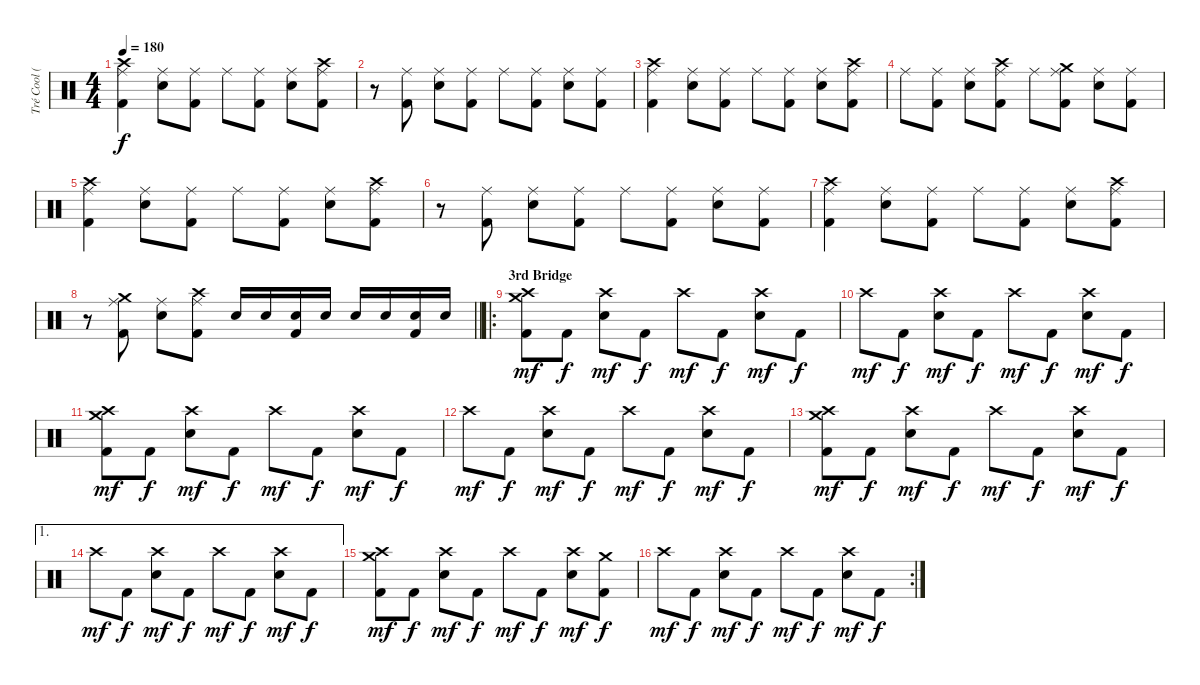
\track ("Tré Cool (Drums)" "Tré Cool (") {instrument percussion}
\staff {score}
\articulation defaults
\ts (4 4)
\tempo 180
\clef neutral
\ks c
("Crash high (hit)" "Ride (middle)" "Kick (hit) 2").4{dy f} ("Ride (middle)" "Electric Snare (hit)").8 ("Ride (middle)" "Kick (hit) 2").8 "Ride (middle)".8 ("Ride (middle)" "Kick (hit) 2").8 ("Ride (middle)" "Electric Snare (hit)").8 ("Crash high (hit)" "Ride (middle)" "Kick (hit) 2").8 |
r.8 ("Ride (middle)" "Kick (hit) 2").8 ("Ride (middle)" "Electric Snare (hit)").8 ("Ride (middle)" "Kick (hit) 2").8 "Ride (middle)".8 ("Ride (middle)" "Kick (hit) 2").8 ("Ride (middle)" "Electric Snare (hit)").8 ("Ride (middle)" "Kick (hit) 2").8 |
("Crash high (hit)" "Ride (middle)" "Kick (hit) 2").4 ("Ride (middle)" "Electric Snare (hit)").8 ("Ride (middle)" "Kick (hit) 2").8 "Ride (middle)".8 ("Ride (middle)" "Kick (hit) 2").8 ("Ride (middle)" "Electric Snare (hit)").8 ("Crash high (hit)" "Ride (middle)" "Kick (hit) 2").8 |
"Ride (middle)".8 ("Ride (middle)" "Kick (hit) 2").8 ("Ride (middle)" "Electric Snare (hit)").8 ("Crash high (hit)" "Ride (middle)" "Kick (hit) 2").8 "Ride (middle)".8 ("Crash medium (hit)" "Ride (middle)" "Kick (hit) 2").8 ("Ride (middle)" "Electric Snare (hit)").8 ("Ride (middle)" "Kick (hit) 2").8 |
("Crash high (hit)" "Ride (middle)" "Kick (hit) 2").4 ("Ride (middle)" "Electric Snare (hit)").8 ("Ride (middle)" "Kick (hit) 2").8 "Ride (middle)".8 ("Ride (middle)" "Kick (hit) 2").8 ("Ride (middle)" "Electric Snare (hit)").8 ("Crash high (hit)" "Ride (middle)" "Kick (hit) 2").8 |
r.8 ("Ride (middle)" "Kick (hit) 2").8 ("Ride (middle)" "Electric Snare (hit)").8 ("Ride (middle)" "Kick (hit) 2").8 "Ride (middle)".8 ("Ride (middle)" "Kick (hit) 2").8 ("Ride (middle)" "Electric Snare (hit)").8 ("Ride (middle)" "Kick (hit) 2").8 |
("Crash high (hit)" "Ride (middle)" "Kick (hit) 2").4 ("Ride (middle)" "Electric Snare (hit)").8 ("Ride (middle)" "Kick (hit) 2").8 "Ride (middle)".8 ("Ride (middle)" "Kick (hit) 2").8 ("Ride (middle)" "Electric Snare (hit)").8 ("Crash high (hit)" "Ride (middle)" "Kick (hit) 2").8 |
\barLineRight lightlight
r.8 ("Crash medium (hit)" "Ride (middle)" "Kick (hit) 2").8 ("Ride (middle)" "Electric Snare (hit)").8 ("Crash high (hit)" "Ride (middle)" "Kick (hit) 2").8 "Electric Snare (hit)".16 "Electric Snare (hit)".16 ("Electric Snare (hit)" "Kick (hit) 2").16 "Electric Snare (hit)".16 "Electric Snare (hit)".16 "Electric Snare (hit)".16 ("Electric Snare (hit)" "Kick (hit) 2").16 "Electric Snare (hit)".16 |
\ro
\section ("" "3rd Bridge")
("Crash medium (hit)" "Crash high (hit)" "Kick (hit) 2").8{dy mf} "Kick (hit) 2".8{dy f} ("Crash high (hit)" "Electric Snare (hit)").8{dy mf} "Kick (hit) 2".8{dy f} "Crash high (hit)".8{dy mf} "Kick (hit) 2".8{dy f} ("Crash high (hit)" "Electric Snare (hit)").8{dy mf} "Kick (hit) 2".8{dy f} |
"Crash high (hit)".8{dy mf} "Kick (hit) 2".8{dy f} ("Crash high (hit)" "Electric Snare (hit)").8{dy mf} "Kick (hit) 2".8{dy f} "Crash high (hit)".8{dy mf} "Kick (hit) 2".8{dy f} ("Crash high (hit)" "Electric Snare (hit)").8{dy mf} "Kick (hit) 2".8{dy f} |
("Crash medium (hit)" "Crash high (hit)" "Kick (hit) 2").8{dy mf} "Kick (hit) 2".8{dy f} ("Crash high (hit)" "Electric Snare (hit)").8{dy mf} "Kick (hit) 2".8{dy f} "Crash high (hit)".8{dy mf} "Kick (hit) 2".8{dy f} ("Crash high (hit)" "Electric Snare (hit)").8{dy mf} "Kick (hit) 2".8{dy f} |
"Crash high (hit)".8{dy mf} "Kick (hit) 2".8{dy f} ("Crash high (hit)" "Electric Snare (hit)").8{dy mf} "Kick (hit) 2".8{dy f} "Crash high (hit)".8{dy mf} "Kick (hit) 2".8{dy f} ("Crash high (hit)" "Electric Snare (hit)").8{dy mf} "Kick (hit) 2".8{dy f} |
("Crash medium (hit)" "Crash high (hit)" "Kick (hit) 2").8{dy mf} "Kick (hit) 2".8{dy f} ("Crash high (hit)" "Electric Snare (hit)").8{dy mf} "Kick (hit) 2".8{dy f} "Crash high (hit)".8{dy mf} "Kick (hit) 2".8{dy f} ("Crash high (hit)" "Electric Snare (hit)").8{dy mf} "Kick (hit) 2".8{dy f} |
\ae 1 "Crash high (hit)".8{dy mf} "Kick (hit) 2".8{dy f}
("Crash high (hit)" "Electric Snare (hit)").8{dy mf} "Kick (hit) 2".8{dy f} "Crash high (hit)".8{dy mf} "Kick (hit) 2".8{dy f} ("Crash high (hit)" "Electric Snare (hit)").8{dy mf} "Kick (hit) 2".8{dy f} |
("Crash medium (hit)" "Crash high (hit)" "Kick (hit) 2").8{dy mf} "Kick (hit) 2".8{dy f} ("Crash high (hit)" "Electric Snare (hit)").8{dy mf} "Kick (hit) 2".8{dy f} "Crash high (hit)".8{dy mf} "Kick (hit) 2".8{dy f} ("Crash high (hit)" "Electric Snare (hit)").8{dy mf} ("Crash medium (hit)" "Kick (hit) 2").8{dy f} |
\rc 2 "Crash high (hit)".8{dy mf} "Kick (hit) 2".8{dy f}
("Crash high (hit)" "Electric Snare (hit)").8{dy mf} "Kick (hit) 2".8{dy f} "Crash high (hit)".8{dy mf} "Kick (hit) 2".8{dy f} ("Crash high (hit)" "Electric Snare (hit)").8{dy mf} "Kick (hit) 2".8{dy f}
